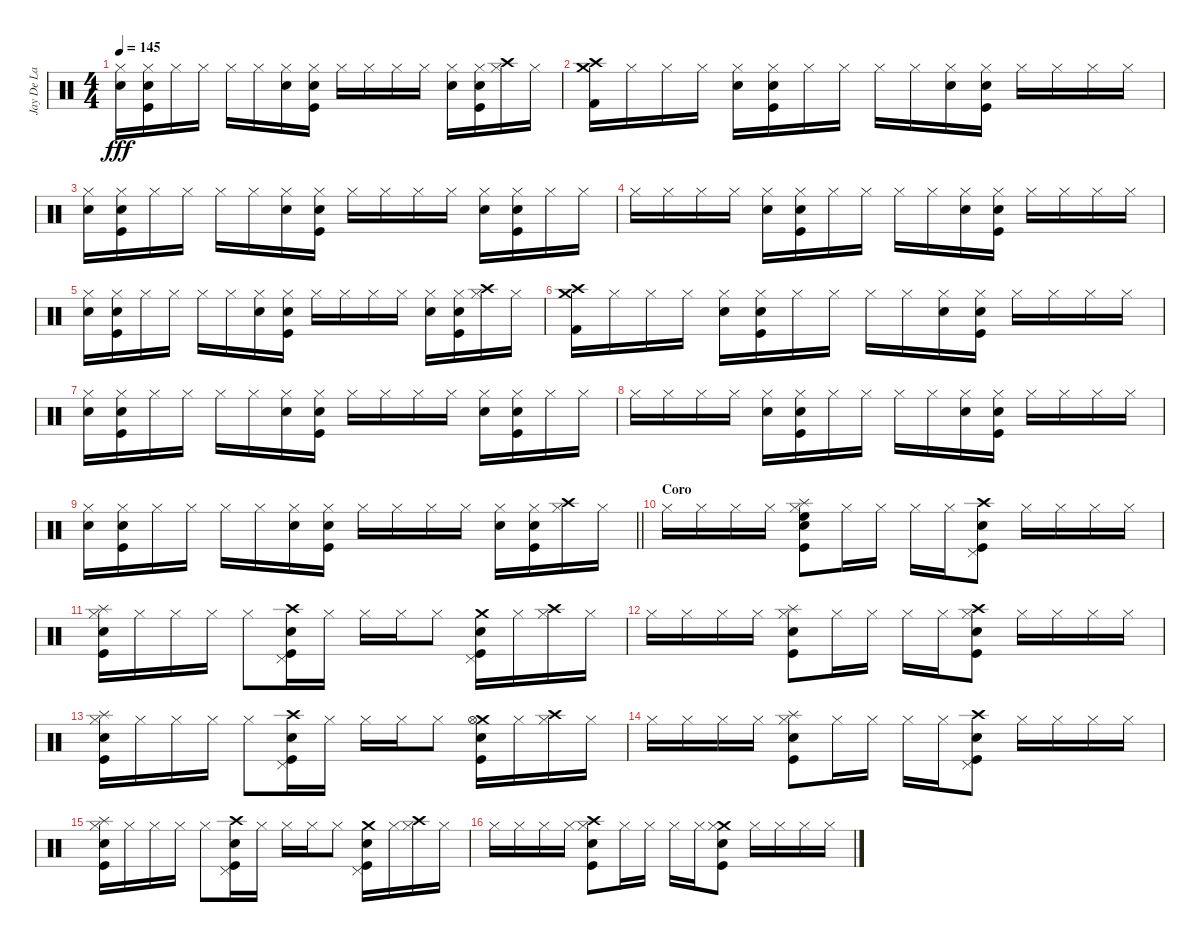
\track ("Jay De La Cueva o C. G." "Jay De La ") {instrument percussion}
\staff {score}
\articulation defaults
\ts (4 4)
\tempo 145
\clef neutral
\ks c
("Snare (hit) 2" "Hi-Hat (closed)").16{dy fff} ("Kick (hit)" "Snare (hit) 2" "Hi-Hat (closed)").16 "Hi-Hat (closed)".16 "Hi-Hat (closed)".16 "Hi-Hat (closed)".16 "Hi-Hat (closed)".16 ("Snare (hit) 2" "Hi-Hat (closed)").16 ("Kick (hit)" "Snare (hit) 2" "Hi-Hat (closed)").16 "Hi-Hat (closed)".16 "Hi-Hat (closed)".16 "Hi-Hat (closed)".16 "Hi-Hat (closed)".16 ("Snare (hit) 2" "Hi-Hat (closed)").16 ("Kick (hit)" "Snare (hit) 2" "Hi-Hat (closed)").16 ("Crash high (hit)" "Hi-Hat (closed)").16 "Hi-Hat (closed)".16 |
("Crash high (hit)" "Crash medium (hit)" "Kick (hit) 2").16 "Hi-Hat (closed)".16 "Hi-Hat (closed)".16 "Hi-Hat (closed)".16 ("Snare (hit) 2" "Hi-Hat (closed)").16 ("Kick (hit)" "Snare (hit) 2" "Hi-Hat (closed)").16 "Hi-Hat (closed)".16 "Hi-Hat (closed)".16 "Hi-Hat (closed)".16 "Hi-Hat (closed)".16 ("Snare (hit) 2" "Hi-Hat (closed)").16 ("Kick (hit)" "Snare (hit) 2" "Hi-Hat (closed)").16 "Hi-Hat (closed)".16 "Hi-Hat (closed)".16 "Hi-Hat (closed)".16 "Hi-Hat (closed)".16 |
("Snare (hit) 2" "Hi-Hat (closed)").16 ("Kick (hit)" "Snare (hit) 2" "Hi-Hat (closed)").16 "Hi-Hat (closed)".16 "Hi-Hat (closed)".16 "Hi-Hat (closed)".16 "Hi-Hat (closed)".16 ("Snare (hit) 2" "Hi-Hat (closed)").16 ("Kick (hit)" "Snare (hit) 2" "Hi-Hat (closed)").16 "Hi-Hat (closed)".16 "Hi-Hat (closed)".16 "Hi-Hat (closed)".16 "Hi-Hat (closed)".16 ("Snare (hit) 2" "Hi-Hat (closed)").16 ("Kick (hit)" "Snare (hit) 2" "Hi-Hat (closed)").16 "Hi-Hat (closed)".16 "Hi-Hat (closed)".16 |
"Hi-Hat (closed)".16 "Hi-Hat (closed)".16 "Hi-Hat (closed)".16 "Hi-Hat (closed)".16 ("Snare (hit) 2" "Hi-Hat (closed)").16 ("Kick (hit)" "Snare (hit) 2" "Hi-Hat (closed)").16 "Hi-Hat (closed)".16 "Hi-Hat (closed)".16 "Hi-Hat (closed)".16 "Hi-Hat (closed)".16 ("Snare (hit) 2" "Hi-Hat (closed)").16 ("Kick (hit)" "Snare (hit) 2" "Hi-Hat (closed)").16 "Hi-Hat (closed)".16 "Hi-Hat (closed)".16 "Hi-Hat (closed)".16 "Hi-Hat (closed)".16 |
("Snare (hit) 2" "Hi-Hat (closed)").16 ("Kick (hit)" "Snare (hit) 2" "Hi-Hat (closed)").16 "Hi-Hat (closed)".16 "Hi-Hat (closed)".16 "Hi-Hat (closed)".16 "Hi-Hat (closed)".16 ("Snare (hit) 2" "Hi-Hat (closed)").16 ("Kick (hit)" "Snare (hit) 2" "Hi-Hat (closed)").16 "Hi-Hat (closed)".16 "Hi-Hat (closed)".16 "Hi-Hat (closed)".16 "Hi-Hat (closed)".16 ("Snare (hit) 2" "Hi-Hat (closed)").16 ("Kick (hit)" "Snare (hit) 2" "Hi-Hat (closed)").16 ("Crash high (hit)" "Hi-Hat (closed)").16 "Hi-Hat (closed)".16 |
("Crash high (hit)" "Crash medium (hit)" "Kick (hit) 2").16 "Hi-Hat (closed)".16 "Hi-Hat (closed)".16 "Hi-Hat (closed)".16 ("Snare (hit) 2" "Hi-Hat (closed)").16 ("Kick (hit)" "Snare (hit) 2" "Hi-Hat (closed)").16 "Hi-Hat (closed)".16 "Hi-Hat (closed)".16 "Hi-Hat (closed)".16 "Hi-Hat (closed)".16 ("Snare (hit) 2" "Hi-Hat (closed)").16 ("Kick (hit)" "Snare (hit) 2" "Hi-Hat (closed)").16 "Hi-Hat (closed)".16 "Hi-Hat (closed)".16 "Hi-Hat (closed)".16 "Hi-Hat (closed)".16 |
("Snare (hit) 2" "Hi-Hat (closed)").16 ("Kick (hit)" "Snare (hit) 2" "Hi-Hat (closed)").16 "Hi-Hat (closed)".16 "Hi-Hat (closed)".16 "Hi-Hat (closed)".16 "Hi-Hat (closed)".16 ("Snare (hit) 2" "Hi-Hat (closed)").16 ("Kick (hit)" "Snare (hit) 2" "Hi-Hat (closed)").16 "Hi-Hat (closed)".16 "Hi-Hat (closed)".16 "Hi-Hat (closed)".16 "Hi-Hat (closed)".16 ("Snare (hit) 2" "Hi-Hat (closed)").16 ("Kick (hit)" "Snare (hit) 2" "Hi-Hat (closed)").16 "Hi-Hat (closed)".16 "Hi-Hat (closed)".16 |
"Hi-Hat (closed)".16 "Hi-Hat (closed)".16 "Hi-Hat (closed)".16 "Hi-Hat (closed)".16 ("Snare (hit) 2" "Hi-Hat (closed)").16 ("Kick (hit)" "Snare (hit) 2" "Hi-Hat (closed)").16 "Hi-Hat (closed)".16 "Hi-Hat (closed)".16 "Hi-Hat (closed)".16 "Hi-Hat (closed)".16 ("Snare (hit) 2" "Hi-Hat (closed)").16 ("Kick (hit)" "Snare (hit) 2" "Hi-Hat (closed)").16 "Hi-Hat (closed)".16 "Hi-Hat (closed)".16 "Hi-Hat (closed)".16 "Hi-Hat (closed)".16 |
\barLineRight lightlight
("Snare (hit) 2" "Hi-Hat (closed)").16 ("Kick (hit)" "Snare (hit) 2" "Hi-Hat (closed)").16 "Hi-Hat (closed)".16 "Hi-Hat (closed)".16 "Hi-Hat (closed)".16 "Hi-Hat (closed)".16 ("Snare (hit) 2" "Hi-Hat (closed)").16 ("Kick (hit)" "Snare (hit) 2" "Hi-Hat (closed)").16 "Hi-Hat (closed)".16 "Hi-Hat (closed)".16 "Hi-Hat (closed)".16 "Hi-Hat (closed)".16 ("Snare (hit) 2" "Hi-Hat (closed)").16 ("Kick (hit)" "Snare (hit) 2" "Hi-Hat (closed)").16 ("Crash high (hit)" "Hi-Hat (closed)").16 "Hi-Hat (closed)".16 |
\section ("" "Coro")
"Hi-Hat (closed)".16 "Hi-Hat (closed)".16 "Hi-Hat (closed)".16 "Hi-Hat (closed)".16 ("Splash (hit)" "Snare (hit) 2" "Hi-Hat (closed)" "Kick (hit)" "High Floor Tom (hit)").8 "Hi-Hat (closed)".16 "Hi-Hat (closed)".16 "Hi-Hat (closed)".16 "Hi-Hat (closed)".16 ("Crash high (hit)" "Snare (hit) 2" "Pedal Hi-Hat (hit)" "Kick (hit)").8 "Hi-Hat (closed)".16 "Hi-Hat (closed)".16 "Hi-Hat (closed)".16 "Hi-Hat (closed)".16 |
("Splash (hit)" "Snare (hit) 2" "Hi-Hat (closed)" "Kick (hit)").16 "Hi-Hat (closed)".16 "Hi-Hat (closed)".16 "Hi-Hat (closed)".16 "Hi-Hat (closed)".8 ("Crash high (hit)" "Snare (hit) 2" "Pedal Hi-Hat (hit)" "Kick (hit)").16 "Hi-Hat (closed)".16 "Hi-Hat (closed)".16 "Hi-Hat (closed)".16 "Hi-Hat (closed)".8 ("Crash medium (hit)" "Snare (hit) 2" "Pedal Hi-Hat (hit)" "Kick (hit)").16 "Hi-Hat (closed)".16 ("Crash high (hit)" "Hi-Hat (closed)").16 "Hi-Hat (closed)".16 |
"Hi-Hat (closed)".16 "Hi-Hat (closed)".16 "Hi-Hat (closed)".16 "Hi-Hat (closed)".16 ("Splash (hit)" "Snare (hit) 2" "Hi-Hat (closed)" "Kick (hit)").8 "Hi-Hat (closed)".16 "Hi-Hat (closed)".16 "Hi-Hat (closed)".16 "Hi-Hat (closed)".16 ("Crash high (hit)" "Snare (hit) 2" "Hi-Hat (closed)" "Kick (hit)").8 "Hi-Hat (closed)".16 "Hi-Hat (closed)".16 "Hi-Hat (closed)".16 "Hi-Hat (closed)".16 |
("Splash (hit)" "Snare (hit) 2" "Hi-Hat (closed)" "Kick (hit)").16 "Hi-Hat (closed)".16 "Hi-Hat (closed)".16 "Hi-Hat (closed)".16 "Hi-Hat (closed)".8 ("Crash high (hit)" "Snare (hit) 2" "Pedal Hi-Hat (hit)" "Kick (hit)").16 "Hi-Hat (closed)".16 "Hi-Hat (closed)".16 "Hi-Hat (closed)".16 "Hi-Hat (closed)".8 ("Crash medium (hit)" "Snare (hit) 2" "Hi-Hat (open)" "Kick (hit)").16 "Hi-Hat (closed)".16 ("Crash high (hit)" "Hi-Hat (closed)").16 "Hi-Hat (closed)".16 |
"Hi-Hat (closed)".16 "Hi-Hat (closed)".16 "Hi-Hat (closed)".16 "Hi-Hat (closed)".16 ("Splash (hit)" "Snare (hit) 2" "Hi-Hat (closed)" "Kick (hit)").8 "Hi-Hat (closed)".16 "Hi-Hat (closed)".16 "Hi-Hat (closed)".16 "Hi-Hat (closed)".16 ("Crash high (hit)" "Snare (hit) 2" "Pedal Hi-Hat (hit)" "Kick (hit)").8 "Hi-Hat (closed)".16 "Hi-Hat (closed)".16 "Hi-Hat (closed)".16 "Hi-Hat (closed)".16 |
("Splash (hit)" "Snare (hit) 2" "Hi-Hat (closed)" "Kick (hit)").16 "Hi-Hat (closed)".16 "Hi-Hat (closed)".16 "Hi-Hat (closed)".16 "Hi-Hat (closed)".8 ("Crash high (hit)" "Snare (hit) 2" "Pedal Hi-Hat (hit)" "Kick (hit)").16 "Hi-Hat (closed)".16 "Hi-Hat (closed)".16 "Hi-Hat (closed)".16 "Hi-Hat (closed)".8 ("Crash medium (hit)" "Snare (hit) 2" "Pedal Hi-Hat (hit)" "Kick (hit)").16 "Hi-Hat (closed)".16 ("Crash high (hit)" "Hi-Hat (closed)").16 "Hi-Hat (closed)".16 |
"Hi-Hat (closed)".16 "Hi-Hat (closed)".16 "Hi-Hat (closed)".16 "Hi-Hat (closed)".16 ("Crash high (hit)" "Snare (hit) 2" "Hi-Hat (closed)" "Kick (hit)").8 "Hi-Hat (closed)".16 "Hi-Hat (closed)".16 "Hi-Hat (closed)".16 "Hi-Hat (closed)".16 ("Crash medium (hit)" "Snare (hit) 2" "Hi-Hat (closed)" "Kick (hit)").8 "Hi-Hat (closed)".16 "Hi-Hat (closed)".16 "Hi-Hat (closed)".16 "Hi-Hat (closed)".16
